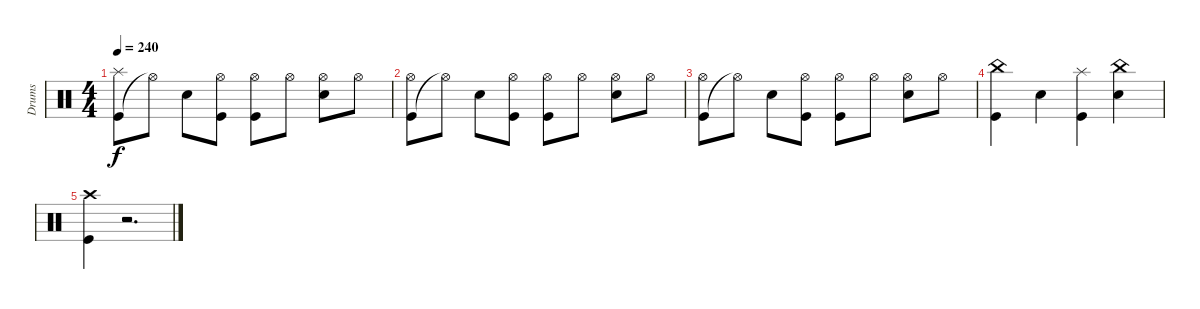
\track ("Drums" "Drums") {instrument percussion}
\staff {score}
\articulation defaults
\ts (4 4)
\tempo 240
\clef neutral
\ks c
("Kick (hit)" "Splash (hit)").8{dy f} "Hi-Hat (open)"{t}.8 "Snare (hit) 2".8 ("Kick (hit)" "Hi-Hat (open)").8 ("Kick (hit)" "Hi-Hat (open)").8 "Hi-Hat (open)".8 ("Snare (hit) 2" "Hi-Hat (open)").8 "Hi-Hat (open)".8 |
("Kick (hit)" "Hi-Hat (open)").8 "Hi-Hat (open)"{t}.8 "Snare (hit) 2".8 ("Kick (hit)" "Hi-Hat (open)").8 ("Kick (hit)" "Hi-Hat (open)").8 "Hi-Hat (open)".8 ("Snare (hit) 2" "Hi-Hat (open)").8 "Hi-Hat (open)".8 |
("Kick (hit)" "Hi-Hat (open)").8 "Hi-Hat (open)"{t}.8 "Snare (hit) 2".8 ("Kick (hit)" "Hi-Hat (open)").8 ("Kick (hit)" "Hi-Hat (open)").8 "Hi-Hat (open)".8 ("Snare (hit) 2" "Hi-Hat (open)").8 "Hi-Hat (open)".8 |
("Kick (hit)" "China (hit)").4 "Snare (hit) 2".4 ("Kick (hit)" "Splash (hit)").4 ("Snare (hit) 2" "China (hit)").4 |
("Kick (hit)" "Crash high (hit)").4 r.2{d}
